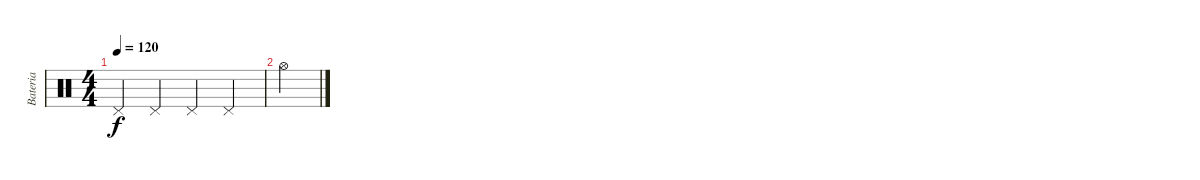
\track ("Bateria" "Bateria") {instrument percussion}
\staff {score}
\articulation defaults
\ts (4 4)
\tempo 120
\clef neutral
\ks c "Pedal Hi-Hat (hit)".4{dy f} "Pedal Hi-Hat (hit)".4 "Pedal Hi-Hat (hit)".4 "Pedal Hi-Hat (hit)".4
|
"Hi-Hat (open)".4
